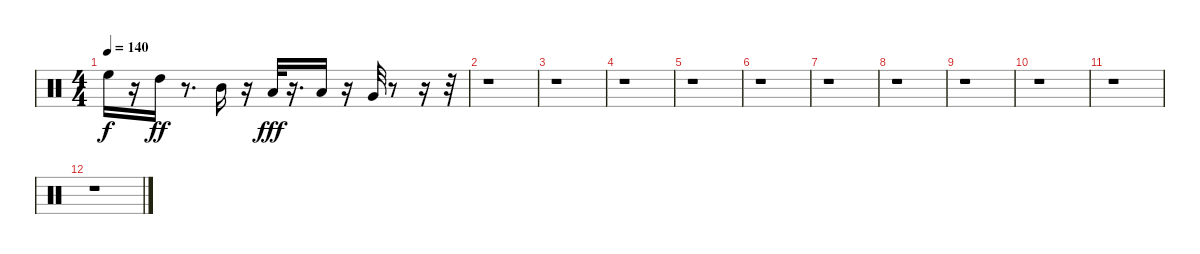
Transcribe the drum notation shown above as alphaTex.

\track "" {instrument percussion}
\staff {score}
\articulation defaults
\ts (4 4)
\tempo 140
\clef neutral
\ks c "High Floor Tom (hit)".16{dy f}
r.16 "High Tom (hit)".16{dy ff} r.8{d} "Mid Tom (hit)".16 r.16 "Low Tom (hit)".32{dy fff} r.16{d} "Low Tom (hit)".16 r.16 "Very Low Tom (hit)".32 r.8 r.16 r.32 |
r.1 |
r.1 |
r.1 |
r.1 |
r.1 |
r.1 |
r.1 |
r.1 |
r.1 |
r.1 |
r.1
